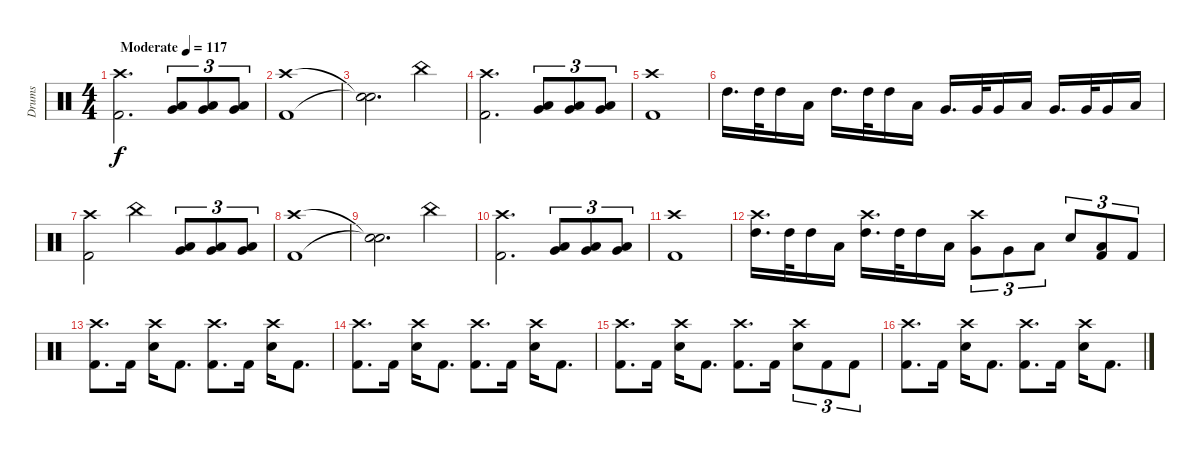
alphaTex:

\track ("Drums" "Drums") {instrument percussion}
\staff {score}
\articulation defaults
\ts (4 4)
\tempo (117 "Moderate")
\clef neutral
\ks c
("Crash high (hit)" "Kick (hit) 2").2{d dy f} ("Low Floor Tom (hit)" "Very Low Tom (hit)").8{tu (3 2)} ("Low Floor Tom (hit)" "Very Low Tom (hit)").8{tu (3 2)} ("Low Floor Tom (hit)" "Very Low Tom (hit)").8{tu (3 2)} |
("Crash high (hit)" "Kick (hit) 2").1 |
("Snare (hit)"{t} "Snare (hit)"{t}).2{d} "China (hit)".4 |
("Crash high (hit)" "Kick (hit) 2").2{d} ("Low Floor Tom (hit)" "Very Low Tom (hit)").8{tu (3 2)} ("Low Floor Tom (hit)" "Very Low Tom (hit)").8{tu (3 2)} ("Low Floor Tom (hit)" "Very Low Tom (hit)").8{tu (3 2)} |
("Crash high (hit)" "Kick (hit) 2").1 |
"High Tom (hit)".16{d} "High Tom (hit)".32 "High Tom (hit)".16 "Low Tom (hit)".16 "High Tom (hit)".16{d} "High Tom (hit)".32 "High Tom (hit)".16 "Low Tom (hit)".16 "Very Low Tom (hit)".16{d} "Very Low Tom (hit)".32 "Very Low Tom (hit)".16 "Low Floor Tom (hit)".16 "Very Low Tom (hit)".16{d} "Very Low Tom (hit)".32 "Very Low Tom (hit)".16 "Low Floor Tom (hit)".16 |
("Crash high (hit)" "Kick (hit) 2").2 "China (hit)".4 ("Low Floor Tom (hit)" "Very Low Tom (hit)").8{tu (3 2)} ("Low Floor Tom (hit)" "Very Low Tom (hit)").8{tu (3 2)} ("Low Floor Tom (hit)" "Very Low Tom (hit)").8{tu (3 2)} |
("Crash high (hit)" "Kick (hit) 2").1 |
("Snare (hit)"{t} "Snare (hit)"{t}).2{d} "China (hit)".4 |
("Crash high (hit)" "Kick (hit) 2").2{d} ("Low Floor Tom (hit)" "Very Low Tom (hit)").8{tu (3 2)} ("Low Floor Tom (hit)" "Very Low Tom (hit)").8{tu (3 2)} ("Low Floor Tom (hit)" "Very Low Tom (hit)").8{tu (3 2)} |
("Crash high (hit)" "Kick (hit) 2").1 |
("Crash high (hit)" "High Tom (hit)").16{d} "High Tom (hit)".32 "High Tom (hit)".16 "Low Tom (hit)".16 ("Crash high (hit)" "High Tom (hit)").16{d} "High Tom (hit)".32 "High Tom (hit)".16 "Low Tom (hit)".16 ("Crash high (hit)" "Very Low Tom (hit)").8{tu (3 2)} "Very Low Tom (hit)".8{tu (3 2)} "Low Floor Tom (hit)".8{tu (3 2)} "Snare (hit) 2".8{tu (3 2)} ("Low Floor Tom (hit)" "Kick (hit) 2").8{tu (3 2)} "Kick (hit) 2".8{tu (3 2)} |
("Crash high (hit)" "Kick (hit) 2").8{d} "Kick (hit) 2".16 ("Crash high (hit)" "Snare (hit) 2").16 "Kick (hit) 2".8{d} ("Crash high (hit)" "Kick (hit) 2").8{d} "Kick (hit) 2".16 ("Crash high (hit)" "Snare (hit) 2").16 "Kick (hit) 2".8{d} |
("Crash high (hit)" "Kick (hit) 2").8{d} "Kick (hit) 2".16 ("Crash high (hit)" "Snare (hit) 2").16 "Kick (hit) 2".8{d} ("Crash high (hit)" "Kick (hit) 2").8{d} "Kick (hit) 2".16 ("Crash high (hit)" "Snare (hit) 2").16 "Kick (hit) 2".8{d} |
("Crash high (hit)" "Kick (hit) 2").8{d} "Kick (hit) 2".16 ("Crash high (hit)" "Snare (hit) 2").16 "Kick (hit) 2".8{d} ("Crash high (hit)" "Kick (hit) 2").8{d} "Kick (hit) 2".16 ("Crash high (hit)" "Snare (hit) 2").8{tu (3 2)} "Kick (hit) 2".8{tu (3 2)} "Kick (hit) 2".8{tu (3 2)} |
("Crash high (hit)" "Kick (hit) 2").8{d} "Kick (hit) 2".16 ("Crash high (hit)" "Snare (hit) 2").16 "Kick (hit) 2".8{d} ("Crash high (hit)" "Kick (hit) 2").8{d} "Kick (hit) 2".16 ("Crash high (hit)" "Snare (hit) 2").16 "Kick (hit) 2".8{d}
